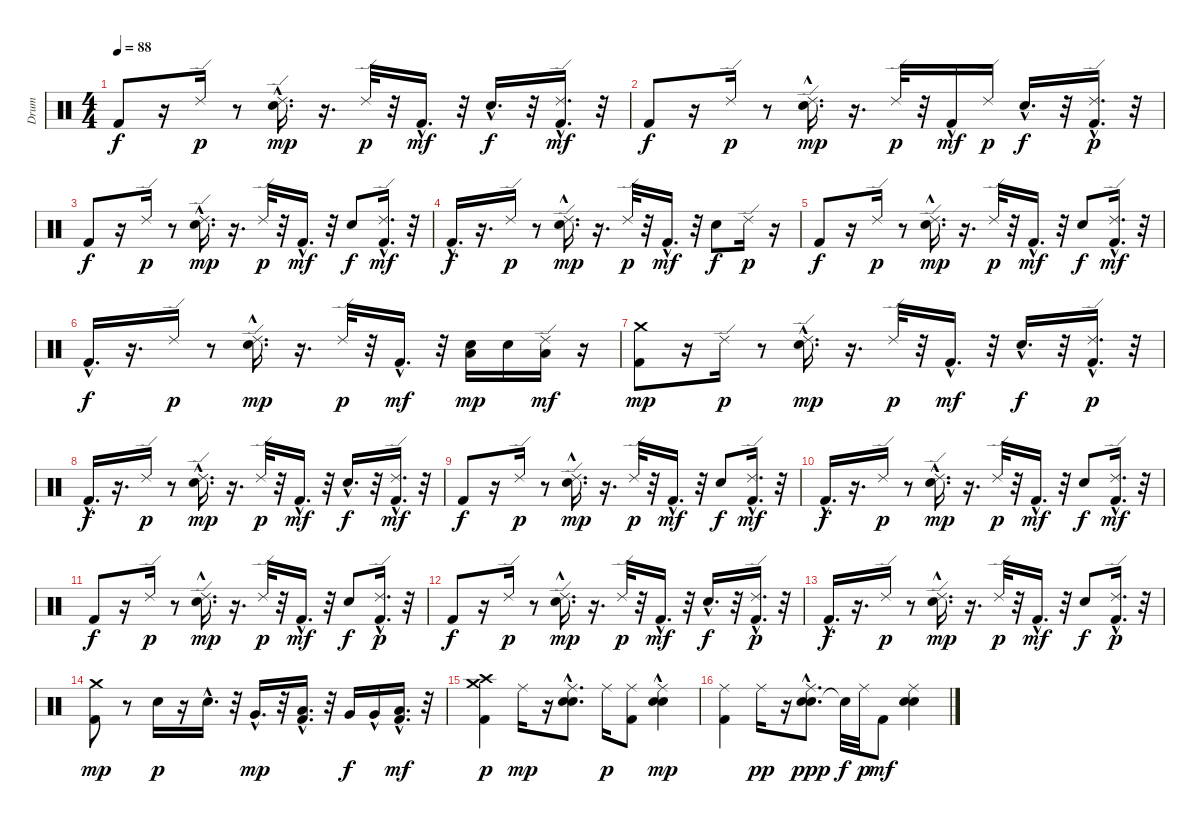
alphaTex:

\track ("Drum" "Drum") {instrument percussion}
\staff {score}
\articulation defaults
\ts (4 4)
\tempo 88
\clef neutral
\ks c "Kick (hit) 2".8{dy f}
r.16 "Ride (edge) 2".16{dy p} r.8 ("Electric Snare (hit)"{hac} "Ride (edge) 2").16{d dy mp} r.16{d} "Ride (edge) 2".32{dy p} r.32 "Kick (hit) 2"{hac}.16{d dy mf} r.32 "Electric Snare (hit)"{hac}.16{d dy f} r.32 ("Ride (edge) 2" "Kick (hit) 2"{hac}).16{d dy mf} r.32 |
"Kick (hit) 2".8{dy f} r.16 "Ride (edge) 2".16{dy p} r.8 ("Ride (edge) 2" "Electric Snare (hit)"{hac}).16{d dy mp} r.16{d} "Ride (edge) 2".32{dy p} r.32 "Kick (hit) 2"{hac}.16{dy mf} "Ride (edge) 2".16{dy p} "Electric Snare (hit)"{hac}.16{d dy f} r.32 ("Kick (hit) 2"{hac} "Ride (edge) 2").16{d dy p} r.32 |
"Kick (hit) 2".8{dy f} r.16 "Ride (edge) 2".16{dy p} r.8 ("Electric Snare (hit)"{hac} "Ride (edge) 2").16{d dy mp} r.16{d} "Ride (edge) 2".32{dy p} r.32 "Kick (hit) 2"{hac}.16{d dy mf} r.32 "Electric Snare (hit)".8{dy f} ("Ride (edge) 2" "Kick (hit) 2"{hac}).16{d dy mf} r.32 |
"Kick (hit) 2"{hac}.16{d dy f} r.16{d} "Ride (edge) 2".16{dy p} r.8 ("Ride (edge) 2" "Electric Snare (hit)"{hac}).16{d dy mp} r.16{d} "Ride (edge) 2".32{dy p} r.32 "Kick (hit) 2"{hac}.16{d dy mf} r.32 "Electric Snare (hit)".8{dy f} "Ride (edge) 2".16{dy p} r.16 |
"Kick (hit) 2".8{dy f} r.16 "Ride (edge) 2".16{dy p} r.8 ("Ride (edge) 2" "Electric Snare (hit)"{hac}).16{d dy mp} r.16{d} "Ride (edge) 2".32{dy p} r.32 "Kick (hit) 2"{hac}.16{d dy mf} r.32 "Electric Snare (hit)".8{dy f} ("Ride (edge) 2" "Kick (hit) 2"{hac}).16{d dy mf} r.32 |
"Kick (hit) 2"{hac}.16{d dy f} r.16{d} "Ride (edge) 2".16{dy p} r.8 ("Ride (edge) 2" "Electric Snare (hit)"{hac}).16{d dy mp} r.16{d} "Ride (edge) 2".32{dy p} r.32 "Kick (hit) 2"{hac}.16{d dy mf} r.32 ("Electric Snare (hit)" "Low Tom (hit)").16{dy mp} "Electric Snare (hit)".16 ("Ride (edge) 2" "Low Tom (hit)").16{dy mf} r.16 |
("Kick (hit) 2" "Crash medium (hit)").8{dy mp} r.16 "Ride (edge) 2".16{dy p} r.8 ("Electric Snare (hit)"{hac} "Ride (edge) 2").16{d dy mp} r.16{d} "Ride (edge) 2".32{dy p} r.32 "Kick (hit) 2"{hac}.16{d dy mf} r.32 "Electric Snare (hit)"{hac}.16{d dy f} r.32 ("Kick (hit) 2"{hac} "Ride (edge) 2").16{d dy p} r.32 |
"Kick (hit) 2"{hac}.16{d dy f} r.16{d} "Ride (edge) 2".16{dy p} r.8 ("Electric Snare (hit)"{hac} "Ride (edge) 2").16{d dy mp} r.16{d} "Ride (edge) 2".32{dy p} r.32 "Kick (hit) 2"{hac}.16{d dy mf} r.32 "Electric Snare (hit)"{hac}.16{d dy f} r.32 ("Ride (edge) 2" "Kick (hit) 2"{hac}).16{d dy mf} r.32 |
"Kick (hit) 2".8{dy f} r.16 "Ride (edge) 2".16{dy p} r.8 ("Ride (edge) 2" "Electric Snare (hit)"{hac}).16{d dy mp} r.16{d} "Ride (edge) 2".32{dy p} r.32 "Kick (hit) 2"{hac}.16{d dy mf} r.32 "Electric Snare (hit)".8{dy f} ("Ride (edge) 2" "Kick (hit) 2"{hac}).16{d dy mf} r.32 |
"Kick (hit) 2"{hac}.16{d dy f} r.16{d} "Ride (edge) 2".16{dy p} r.8 ("Electric Snare (hit)"{hac} "Ride (edge) 2").16{d dy mp} r.16{d} "Ride (edge) 2".32{dy p} r.32 "Kick (hit) 2"{hac}.16{d dy mf} r.32 "Electric Snare (hit)".8{dy f} ("Ride (edge) 2" "Kick (hit) 2"{hac}).16{d dy mf} r.32 |
"Kick (hit) 2".8{dy f} r.16 "Ride (edge) 2".16{dy p} r.8 ("Ride (edge) 2" "Electric Snare (hit)"{hac}).16{d dy mp} r.16{d} "Ride (edge) 2".32{dy p} r.32 "Kick (hit) 2"{hac}.16{d dy mf} r.32 "Electric Snare (hit)".8{dy f} ("Kick (hit) 2"{hac} "Ride (edge) 2").16{d dy p} r.32 |
"Kick (hit) 2".8{dy f} r.16 "Ride (edge) 2".16{dy p} r.8 ("Ride (edge) 2" "Electric Snare (hit)"{hac}).16{d dy mp} r.16{d} "Ride (edge) 2".32{dy p} r.32 "Kick (hit) 2"{hac}.16{d dy mf} r.32 "Electric Snare (hit)"{hac}.16{d dy f} r.32 ("Kick (hit) 2"{hac} "Ride (edge) 2").16{d dy p} r.32 |
"Kick (hit) 2"{hac}.16{d dy f} r.16{d} "Ride (edge) 2".16{dy p} r.8 ("Ride (edge) 2" "Electric Snare (hit)"{hac}).16{d dy mp} r.16{d} "Ride (edge) 2".32{dy p} r.32 "Kick (hit) 2"{hac}.16{d dy mf} r.32 "Electric Snare (hit)".8{dy f} ("Kick (hit) 2"{hac} "Ride (edge) 2").16{d dy p} r.32 |
("Kick (hit) 2" "Crash medium (hit)").8{dy mp} r.8 "Electric Snare (hit)".16{dy p} r.16 "Electric Snare (hit)"{hac}.16{d} r.32 "Very Low Tom (hit)"{hac}.16{d dy mp} r.32 ("Low Floor Tom (hit)"{hac} "Kick (hit) 2"{hac}).16{d} r.32 "Very Low Tom (hit)".16{dy f} "Very Low Tom (hit)"{hac}.16 ("Low Floor Tom (hit)"{hac} "Kick (hit) 2"{hac}).16{d dy mf} r.32 |
("Kick (hit) 2" "Crash high (hit)" "Crash medium (hit)").4{dy p} "Ride (middle)".16{dy mp} r.16 ("Electric Snare (hit)"{hac} "Electric Snare (hit)"{hac} "Ride (middle)").8{d} "Ride (middle)".16{dy p} ("Kick (hit) 2" "Ride (middle)").8 ("Electric Snare (hit)" "Electric Snare (hit)"{hac} "Ride (middle)").4{dy mp} |
("Kick (hit) 2" "Ride (middle)").4 "Ride (middle)".16{dy pp} r.16 ("Electric Snare (hit)"{hac} "Electric Snare (hit)"{hac} "Ride (middle)").8{d dy ppp} "Snare (hit)"{t}.32{dy f} "Ride (middle)".32{dy p} "Kick (hit) 2".8{dy mf} ("Electric Snare (hit)" "Ride (middle)" "Electric Snare (hit)").4
